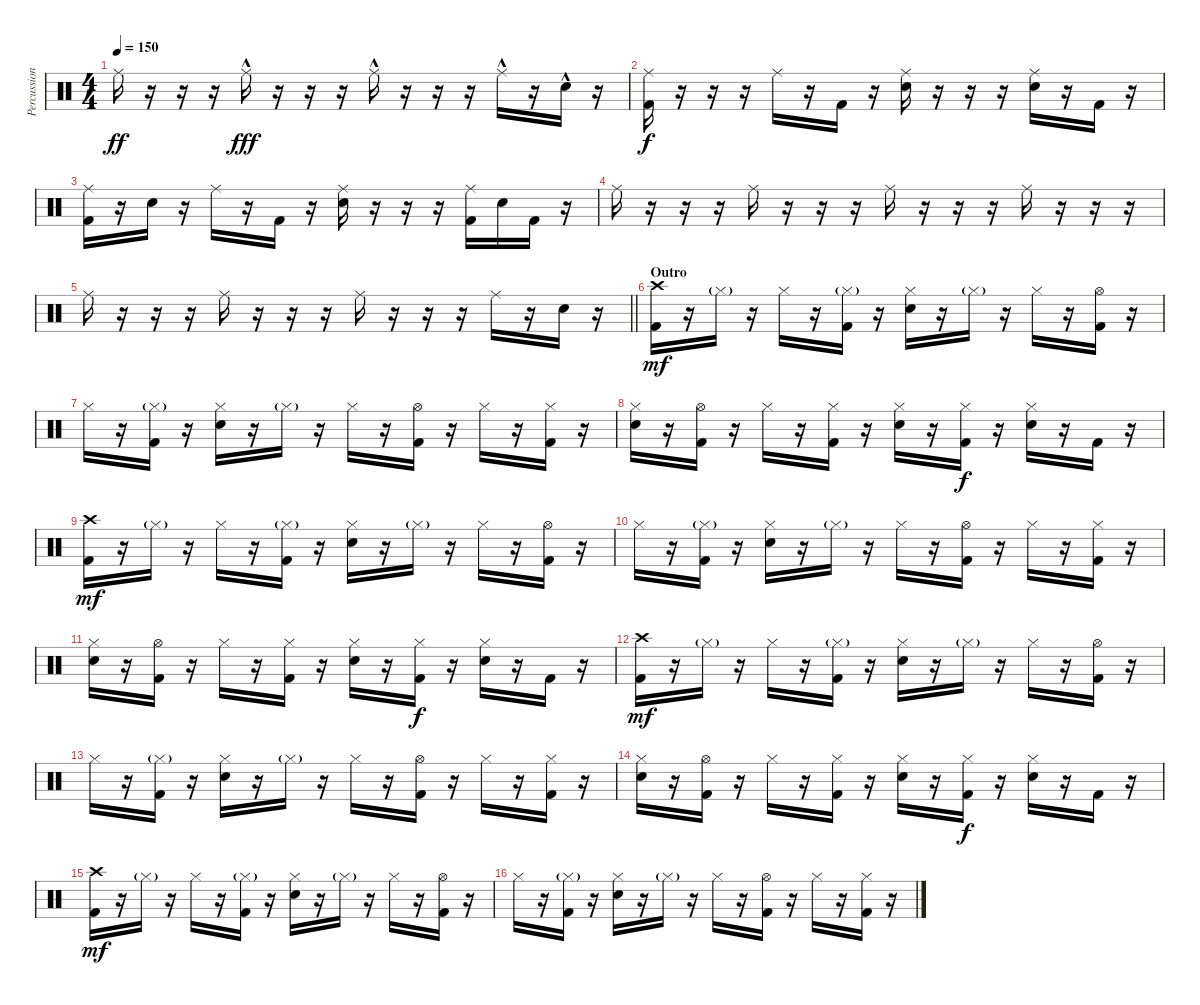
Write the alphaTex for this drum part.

\track ("Percussion" "Percussion") {instrument percussion}
\staff {score}
\articulation defaults
\ts (4 4)
\tempo 150
\clef neutral
\ks c "Ride (middle)".16{dy ff}
r.16 r.16 r.16 "Ride (middle)"{hac}.16{dy fff} r.16 r.16 r.16 "Ride (middle)"{hac}.16 r.16 r.16 r.16 "Ride (middle)"{hac}.16 r.16 "Snare (hit) 2"{hac}.16 r.16 |
("Ride (middle)" "Kick (hit) 2").16{dy f} r.16 r.16 r.16 "Ride (middle)".16 r.16 "Kick (hit) 2".16 r.16 ("Ride (middle)" "Snare (hit) 2").16 r.16 r.16 r.16 ("Ride (middle)" "Snare (hit) 2").16 r.16 "Kick (hit) 2".16 r.16 |
("Ride (middle)" "Kick (hit) 2").16 r.16 "Snare (hit) 2".16 r.16 "Ride (middle)".16 r.16 "Kick (hit) 2".16 r.16 ("Ride (middle)" "Snare (hit) 2").16 r.16 r.16 r.16 ("Ride (middle)" "Kick (hit) 2").16 "Snare (hit) 2".16 "Kick (hit) 2".16 r.16 |
"Ride (middle)".16 r.16 r.16 r.16 "Ride (middle)".16 r.16 r.16 r.16 "Ride (middle)".16 r.16 r.16 r.16 "Ride (middle)".16 r.16 r.16 r.16 |
\barLineRight lightlight "Ride (middle)".16
r.16 r.16 r.16 "Ride (middle)".16 r.16 r.16 r.16 "Ride (middle)".16 r.16 r.16 r.16 "Ride (middle)".16 r.16 "Snare (hit) 2".16 r.16 |
\section ("" "Outro")
("Crash high (hit)" "Kick (hit) 2").16{dy mf} r.16 "Hi-Hat (closed)"{g}.16 r.16 "Hi-Hat (closed)".16 r.16 ("Hi-Hat (closed)"{g} "Kick (hit) 2").16 r.16 ("Hi-Hat (closed)" "Snare (hit) 2").16 r.16 "Hi-Hat (closed)"{g}.16 r.16 "Hi-Hat (closed)".16 r.16 ("Hi-Hat (open)" "Kick (hit) 2").16 r.16 |
"Hi-Hat (closed)".16 r.16 ("Hi-Hat (closed)"{g} "Kick (hit) 2").16 r.16 ("Hi-Hat (closed)" "Snare (hit) 2").16 r.16 "Hi-Hat (closed)"{g}.16 r.16 "Hi-Hat (closed)".16 r.16 ("Hi-Hat (open)" "Kick (hit) 2").16 r.16 "Hi-Hat (closed)".16 r.16 ("Hi-Hat (closed)" "Kick (hit) 2").16 r.16 |
("Hi-Hat (closed)" "Snare (hit) 2").16 r.16 ("Hi-Hat (open)" "Kick (hit) 2").16 r.16 "Hi-Hat (closed)".16 r.16 ("Hi-Hat (closed)" "Kick (hit) 2").16 r.16 ("Hi-Hat (closed)" "Snare (hit) 2").16 r.16 ("Hi-Hat (closed)" "Kick (hit) 2").16{dy f} r.16 ("Hi-Hat (closed)" "Snare (hit) 2").16 r.16 "Kick (hit) 2".16 r.16 |
("Crash high (hit)" "Kick (hit) 2").16{dy mf} r.16 "Hi-Hat (closed)"{g}.16 r.16 "Hi-Hat (closed)".16 r.16 ("Hi-Hat (closed)"{g} "Kick (hit) 2").16 r.16 ("Hi-Hat (closed)" "Snare (hit) 2").16 r.16 "Hi-Hat (closed)"{g}.16 r.16 "Hi-Hat (closed)".16 r.16 ("Hi-Hat (open)" "Kick (hit) 2").16 r.16 |
"Hi-Hat (closed)".16 r.16 ("Hi-Hat (closed)"{g} "Kick (hit) 2").16 r.16 ("Hi-Hat (closed)" "Snare (hit) 2").16 r.16 "Hi-Hat (closed)"{g}.16 r.16 "Hi-Hat (closed)".16 r.16 ("Hi-Hat (open)" "Kick (hit) 2").16 r.16 "Hi-Hat (closed)".16 r.16 ("Hi-Hat (closed)" "Kick (hit) 2").16 r.16 |
("Hi-Hat (closed)" "Snare (hit) 2").16 r.16 ("Hi-Hat (open)" "Kick (hit) 2").16 r.16 "Hi-Hat (closed)".16 r.16 ("Hi-Hat (closed)" "Kick (hit) 2").16 r.16 ("Hi-Hat (closed)" "Snare (hit) 2").16 r.16 ("Hi-Hat (closed)" "Kick (hit) 2").16{dy f} r.16 ("Hi-Hat (closed)" "Snare (hit) 2").16 r.16 "Kick (hit) 2".16 r.16 |
("Crash high (hit)" "Kick (hit) 2").16{dy mf} r.16 "Hi-Hat (closed)"{g}.16 r.16 "Hi-Hat (closed)".16 r.16 ("Hi-Hat (closed)"{g} "Kick (hit) 2").16 r.16 ("Hi-Hat (closed)" "Snare (hit) 2").16 r.16 "Hi-Hat (closed)"{g}.16 r.16 "Hi-Hat (closed)".16 r.16 ("Hi-Hat (open)" "Kick (hit) 2").16 r.16 |
"Hi-Hat (closed)".16 r.16 ("Hi-Hat (closed)"{g} "Kick (hit) 2").16 r.16 ("Hi-Hat (closed)" "Snare (hit) 2").16 r.16 "Hi-Hat (closed)"{g}.16 r.16 "Hi-Hat (closed)".16 r.16 ("Hi-Hat (open)" "Kick (hit) 2").16 r.16 "Hi-Hat (closed)".16 r.16 ("Hi-Hat (closed)" "Kick (hit) 2").16 r.16 |
("Hi-Hat (closed)" "Snare (hit) 2").16 r.16 ("Hi-Hat (open)" "Kick (hit) 2").16 r.16 "Hi-Hat (closed)".16 r.16 ("Hi-Hat (closed)" "Kick (hit) 2").16 r.16 ("Hi-Hat (closed)" "Snare (hit) 2").16 r.16 ("Hi-Hat (closed)" "Kick (hit) 2").16{dy f} r.16 ("Hi-Hat (closed)" "Snare (hit) 2").16 r.16 "Kick (hit) 2".16 r.16 |
("Crash high (hit)" "Kick (hit) 2").16{dy mf} r.16 "Hi-Hat (closed)"{g}.16 r.16 "Hi-Hat (closed)".16 r.16 ("Hi-Hat (closed)"{g} "Kick (hit) 2").16 r.16 ("Hi-Hat (closed)" "Snare (hit) 2").16 r.16 "Hi-Hat (closed)"{g}.16 r.16 "Hi-Hat (closed)".16 r.16 ("Hi-Hat (open)" "Kick (hit) 2").16 r.16 |
"Hi-Hat (closed)".16 r.16 ("Hi-Hat (closed)"{g} "Kick (hit) 2").16 r.16 ("Hi-Hat (closed)" "Snare (hit) 2").16 r.16 "Hi-Hat (closed)"{g}.16 r.16 "Hi-Hat (closed)".16 r.16 ("Hi-Hat (open)" "Kick (hit) 2").16 r.16 "Hi-Hat (closed)".16 r.16 ("Hi-Hat (closed)" "Kick (hit) 2").16 r.16
